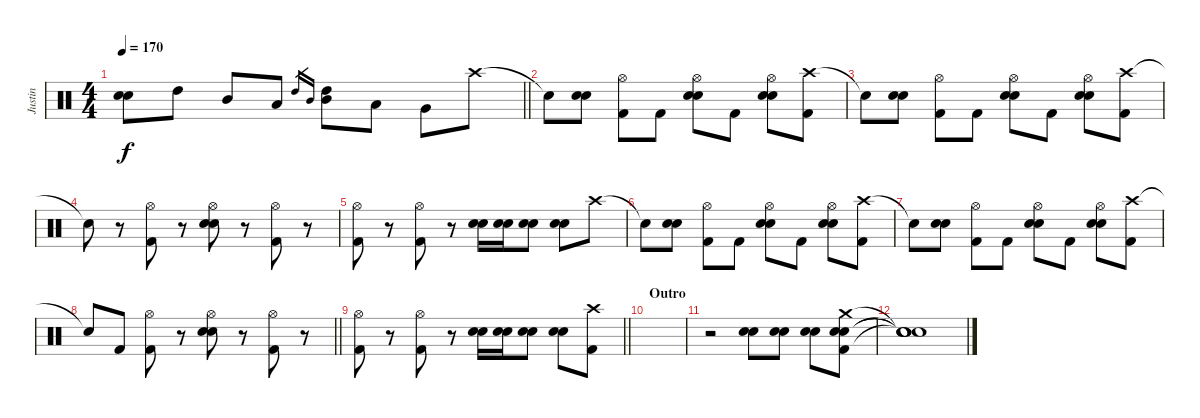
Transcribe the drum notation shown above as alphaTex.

\track ("Justin" "Justin") {instrument percussion}
\staff {score}
\articulation defaults
\ts (4 4)
\tempo 170
\clef neutral
\barLineRight lightlight
\ks c
("Electric Snare (hit)" "Snare (hit) 2").8{dy f} "High Tom (hit)".8 "Mid Tom (hit)".8 "Low Tom (hit)".8 "High Tom (hit)".16{gr} "Mid Tom (hit)".16{gr} ("High Tom (hit)" "Mid Tom (hit)").8 "Low Tom (hit)".8 "Very Low Tom (hit)".8 "Crash high (hit)".8 |
"Snare (hit)"{t}.8 ("Electric Snare (hit)" "Snare (hit) 2").8 ("Hi-Hat (open)" "Kick (hit) 2").8 "Kick (hit) 2".8 ("Hi-Hat (open)" "Electric Snare (hit)" "Snare (hit) 2").8 "Kick (hit) 2".8 ("Hi-Hat (open)" "Electric Snare (hit)" "Snare (hit) 2").8 ("Crash high (hit)" "Kick (hit) 2").8 |
"Snare (hit)"{t}.8 ("Electric Snare (hit)" "Snare (hit) 2").8 ("Hi-Hat (open)" "Kick (hit) 2").8 "Kick (hit) 2".8 ("Hi-Hat (open)" "Electric Snare (hit)" "Snare (hit) 2").8 "Kick (hit) 2".8 ("Hi-Hat (open)" "Electric Snare (hit)" "Snare (hit) 2").8 ("Crash high (hit)" "Kick (hit) 2").8 |
"Snare (hit)"{t}.8 r.8 ("Hi-Hat (open)" "Kick (hit) 2").8 r.8 ("Hi-Hat (open)" "Electric Snare (hit)" "Snare (hit) 2").8 r.8 ("Hi-Hat (open)" "Kick (hit) 2").8 r.8 |
("Hi-Hat (open)" "Kick (hit) 2").8 r.8 ("Hi-Hat (open)" "Kick (hit) 2").8 r.8 ("Electric Snare (hit)" "Snare (hit) 2").16 ("Electric Snare (hit)" "Snare (hit) 2").16 ("Electric Snare (hit)" "Snare (hit) 2").8 ("Electric Snare (hit)" "Snare (hit) 2").8 "Crash high (hit)".8 |
"Snare (hit)"{t}.8 ("Electric Snare (hit)" "Snare (hit) 2").8 ("Hi-Hat (open)" "Kick (hit) 2").8 "Kick (hit) 2".8 ("Hi-Hat (open)" "Electric Snare (hit)" "Snare (hit) 2").8 "Kick (hit) 2".8 ("Hi-Hat (open)" "Electric Snare (hit)" "Snare (hit) 2").8 ("Crash high (hit)" "Kick (hit) 2").8 |
"Snare (hit)"{t}.8 ("Electric Snare (hit)" "Snare (hit) 2").8 ("Hi-Hat (open)" "Kick (hit) 2").8 "Kick (hit) 2".8 ("Hi-Hat (open)" "Electric Snare (hit)" "Snare (hit) 2").8 "Kick (hit) 2".8 ("Hi-Hat (open)" "Electric Snare (hit)" "Snare (hit) 2").8 ("Crash high (hit)" "Kick (hit) 2").8 |
\barLineRight lightlight "Snare (hit)"{t}.8 "Kick (hit) 2".8
("Hi-Hat (open)" "Kick (hit) 2").8 r.8 ("Hi-Hat (open)" "Electric Snare (hit)" "Snare (hit) 2").8 r.8 ("Hi-Hat (open)" "Kick (hit) 2").8 r.8 |
\barLineRight lightlight
("Hi-Hat (open)" "Kick (hit) 2").8 r.8 ("Hi-Hat (open)" "Kick (hit) 2").8 r.8 ("Electric Snare (hit)" "Snare (hit) 2").16 ("Electric Snare (hit)" "Snare (hit) 2").16 ("Electric Snare (hit)" "Snare (hit) 2").8 ("Electric Snare (hit)" "Snare (hit) 2").8 ("Crash high (hit)" "Kick (hit) 2").8 |
\section ("" "Outro")
|
r.2 ("Electric Snare (hit)" "Snare (hit) 2").8 ("Electric Snare (hit)" "Snare (hit) 2").8 ("Electric Snare (hit)" "Snare (hit) 2").8 ("Crash medium (hit)" "Electric Snare (hit)" "Snare (hit) 2" "Kick (hit) 2").8 |
("Snare (hit)"{t} "Snare (hit)"{t} "Snare (hit)"{t} "Snare (hit)"{t}).1
